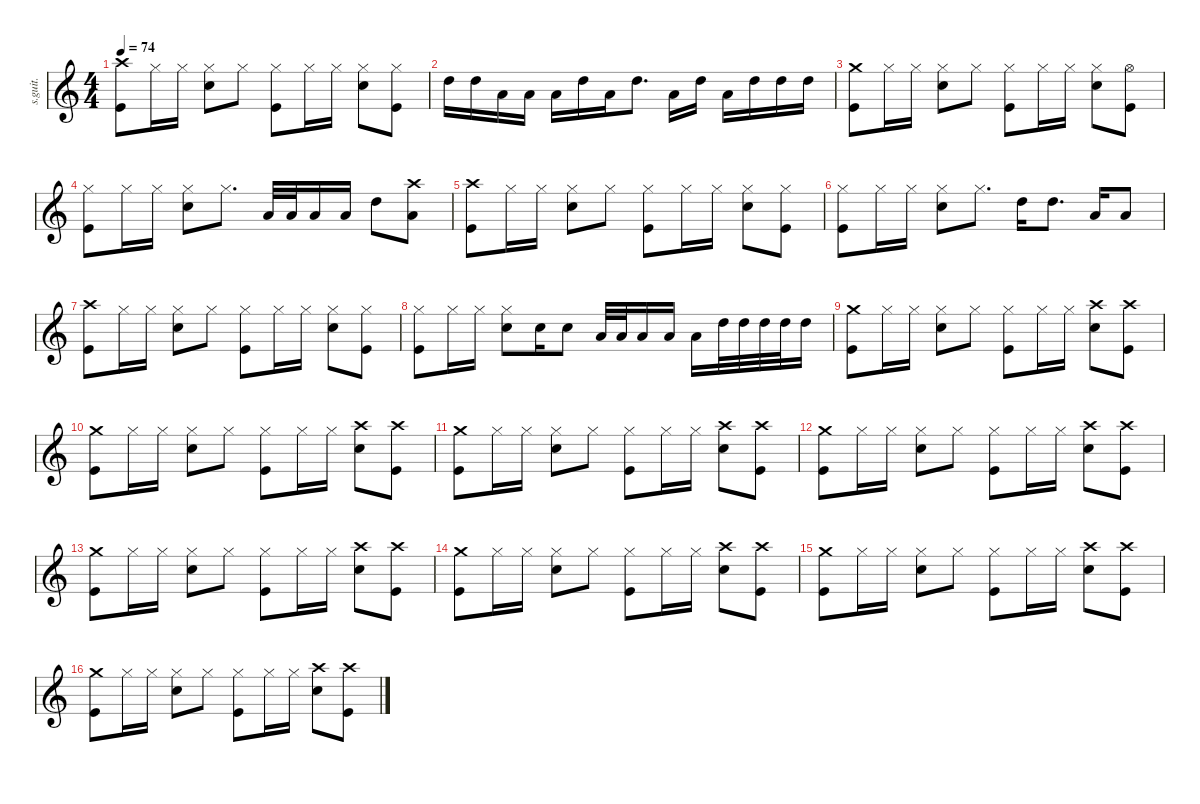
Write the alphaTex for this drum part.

\defaultSystemsLayout 4
\hideDynamics
\bracketExtendMode nobrackets
\track ("Don Henley - Drums" "s.guit.") {instrument percussion}
\staff {score}
\articulation defaults
\ts (4 4)
\tempo 74
\clef g2
\ks c
("Crash high (hit)" "Kick (hit)").8{lyrics (0 "") lyrics (1 "") lyrics (2 "") lyrics (3 "") lyrics (4 "") dy f} "Hi-Hat (closed)".16{lyrics (0 "") lyrics (1 "") lyrics (2 "") lyrics (3 "") lyrics (4 "")} "Hi-Hat (closed)".16{lyrics (0 "") lyrics (1 "") lyrics (2 "") lyrics (3 "") lyrics (4 "")} ("Hi-Hat (closed)" "Snare (hit) 2").8{lyrics (0 "") lyrics (1 "") lyrics (2 "") lyrics (3 "") lyrics (4 "")} "Hi-Hat (closed)".8{lyrics (0 "") lyrics (1 "") lyrics (2 "") lyrics (3 "") lyrics (4 "")} ("Hi-Hat (closed)" "Kick (hit)").8{lyrics (0 "") lyrics (1 "") lyrics (2 "") lyrics (3 "") lyrics (4 "")} "Hi-Hat (closed)".16{lyrics (0 "") lyrics (1 "") lyrics (2 "") lyrics (3 "") lyrics (4 "")} "Hi-Hat (closed)".16{lyrics (0 "") lyrics (1 "") lyrics (2 "") lyrics (3 "") lyrics (4 "")} ("Hi-Hat (closed)" "Snare (hit) 2").8{lyrics (0 "") lyrics (1 "") lyrics (2 "") lyrics (3 "") lyrics (4 "")} ("Hi-Hat (closed)" "Kick (hit)").8{lyrics (0 "") lyrics (1 "") lyrics (2 "") lyrics (3 "") lyrics (4 "")} |
"High Tom (hit)".16{lyrics (0 "") lyrics (1 "") lyrics (2 "") lyrics (3 "") lyrics (4 "")} "High Tom (hit)".16{lyrics (0 "") lyrics (1 "") lyrics (2 "") lyrics (3 "") lyrics (4 "")} "Low Tom (hit)".16{lyrics (0 "") lyrics (1 "") lyrics (2 "") lyrics (3 "") lyrics (4 "")} "Low Floor Tom (hit)".16{lyrics (0 "") lyrics (1 "") lyrics (2 "") lyrics (3 "") lyrics (4 "")} "Low Floor Tom (hit)".16{lyrics (0 "") lyrics (1 "") lyrics (2 "") lyrics (3 "") lyrics (4 "")} "High Tom (hit)".16{lyrics (0 "") lyrics (1 "") lyrics (2 "") lyrics (3 "") lyrics (4 "")} "Low Floor Tom (hit)".16{lyrics (0 "") lyrics (1 "") lyrics (2 "") lyrics (3 "") lyrics (4 "")} "High Tom (hit)".8{d lyrics (0 "") lyrics (1 "") lyrics (2 "") lyrics (3 "") lyrics (4 "")} "Low Floor Tom (hit)".16{lyrics (0 "") lyrics (1 "") lyrics (2 "") lyrics (3 "") lyrics (4 "")} "High Tom (hit)".16{lyrics (0 "") lyrics (1 "") lyrics (2 "") lyrics (3 "") lyrics (4 "")} "Low Floor Tom (hit)".16{lyrics (0 "") lyrics (1 "") lyrics (2 "") lyrics (3 "") lyrics (4 "")} "High Tom (hit)".16{lyrics (0 "") lyrics (1 "") lyrics (2 "") lyrics (3 "") lyrics (4 "")} "High Tom (hit)".16{lyrics (0 "") lyrics (1 "") lyrics (2 "") lyrics (3 "") lyrics (4 "")} "High Tom (hit)".16{lyrics (0 "") lyrics (1 "") lyrics (2 "") lyrics (3 "") lyrics (4 "")} |
("Crash medium (hit)" "Kick (hit)").8{lyrics (0 "") lyrics (1 "") lyrics (2 "") lyrics (3 "") lyrics (4 "")} "Hi-Hat (closed)".16{lyrics (0 "") lyrics (1 "") lyrics (2 "") lyrics (3 "") lyrics (4 "")} "Hi-Hat (closed)".16{lyrics (0 "") lyrics (1 "") lyrics (2 "") lyrics (3 "") lyrics (4 "")} ("Hi-Hat (closed)" "Snare (hit) 2").8{lyrics (0 "") lyrics (1 "") lyrics (2 "") lyrics (3 "") lyrics (4 "")} "Hi-Hat (closed)".8{lyrics (0 "") lyrics (1 "") lyrics (2 "") lyrics (3 "") lyrics (4 "")} ("Hi-Hat (closed)" "Kick (hit)").8{lyrics (0 "") lyrics (1 "") lyrics (2 "") lyrics (3 "") lyrics (4 "")} "Hi-Hat (closed)".16{lyrics (0 "") lyrics (1 "") lyrics (2 "") lyrics (3 "") lyrics (4 "")} "Hi-Hat (closed)".16{lyrics (0 "") lyrics (1 "") lyrics (2 "") lyrics (3 "") lyrics (4 "")} ("Hi-Hat (closed)" "Snare (hit) 2").8{lyrics (0 "") lyrics (1 "") lyrics (2 "") lyrics (3 "") lyrics (4 "")} ("Hi-Hat (open)" "Kick (hit)").8{lyrics (0 "") lyrics (1 "") lyrics (2 "") lyrics (3 "") lyrics (4 "")} |
("Hi-Hat (closed)" "Kick (hit)").8{lyrics (0 "") lyrics (1 "") lyrics (2 "") lyrics (3 "") lyrics (4 "")} "Hi-Hat (closed)".16{lyrics (0 "") lyrics (1 "") lyrics (2 "") lyrics (3 "") lyrics (4 "")} "Hi-Hat (closed)".16{lyrics (0 "") lyrics (1 "") lyrics (2 "") lyrics (3 "") lyrics (4 "")} ("Hi-Hat (closed)" "Snare (hit) 2").8{lyrics (0 "") lyrics (1 "") lyrics (2 "") lyrics (3 "") lyrics (4 "")} "Hi-Hat (closed)".8{d lyrics (0 "") lyrics (1 "") lyrics (2 "") lyrics (3 "") lyrics (4 "")} "Low Floor Tom (hit)".32{lyrics (0 "") lyrics (1 "") lyrics (2 "") lyrics (3 "") lyrics (4 "")} "Low Floor Tom (hit)".32{lyrics (0 "") lyrics (1 "") lyrics (2 "") lyrics (3 "") lyrics (4 "")} "Low Floor Tom (hit)".16{lyrics (0 "") lyrics (1 "") lyrics (2 "") lyrics (3 "") lyrics (4 "")} "Low Floor Tom (hit)".16{lyrics (0 "") lyrics (1 "") lyrics (2 "") lyrics (3 "") lyrics (4 "")} "High Tom (hit)".8{lyrics (0 "") lyrics (1 "") lyrics (2 "") lyrics (3 "") lyrics (4 "")} ("Crash high (hit)" "Low Floor Tom (hit)").8{lyrics (0 "") lyrics (1 "") lyrics (2 "") lyrics (3 "") lyrics (4 "")} |
("Crash high (hit)" "Kick (hit)").8{lyrics (0 "") lyrics (1 "") lyrics (2 "") lyrics (3 "") lyrics (4 "")} "Hi-Hat (closed)".16{lyrics (0 "") lyrics (1 "") lyrics (2 "") lyrics (3 "") lyrics (4 "")} "Hi-Hat (closed)".16{lyrics (0 "") lyrics (1 "") lyrics (2 "") lyrics (3 "") lyrics (4 "")} ("Hi-Hat (closed)" "Snare (hit) 2").8{lyrics (0 "") lyrics (1 "") lyrics (2 "") lyrics (3 "") lyrics (4 "")} "Hi-Hat (closed)".8{lyrics (0 "") lyrics (1 "") lyrics (2 "") lyrics (3 "") lyrics (4 "")} ("Hi-Hat (closed)" "Kick (hit)").8{lyrics (0 "") lyrics (1 "") lyrics (2 "") lyrics (3 "") lyrics (4 "")} "Hi-Hat (closed)".16{lyrics (0 "") lyrics (1 "") lyrics (2 "") lyrics (3 "") lyrics (4 "")} "Hi-Hat (closed)".16{lyrics (0 "") lyrics (1 "") lyrics (2 "") lyrics (3 "") lyrics (4 "")} ("Hi-Hat (closed)" "Snare (hit) 2").8{lyrics (0 "") lyrics (1 "") lyrics (2 "") lyrics (3 "") lyrics (4 "")} ("Hi-Hat (closed)" "Kick (hit)").8{lyrics (0 "") lyrics (1 "") lyrics (2 "") lyrics (3 "") lyrics (4 "")} |
("Hi-Hat (closed)" "Kick (hit)").8{lyrics (0 "") lyrics (1 "") lyrics (2 "") lyrics (3 "") lyrics (4 "")} "Hi-Hat (closed)".16{lyrics (0 "") lyrics (1 "") lyrics (2 "") lyrics (3 "") lyrics (4 "")} "Hi-Hat (closed)".16{lyrics (0 "") lyrics (1 "") lyrics (2 "") lyrics (3 "") lyrics (4 "")} ("Hi-Hat (closed)" "Snare (hit) 2").8{lyrics (0 "") lyrics (1 "") lyrics (2 "") lyrics (3 "") lyrics (4 "")} "Hi-Hat (closed)".8{d lyrics (0 "") lyrics (1 "") lyrics (2 "") lyrics (3 "") lyrics (4 "")} "High Tom (hit)".16{lyrics (0 "") lyrics (1 "") lyrics (2 "") lyrics (3 "") lyrics (4 "")} "High Tom (hit)".8{d lyrics (0 "") lyrics (1 "") lyrics (2 "") lyrics (3 "") lyrics (4 "")} "Low Floor Tom (hit)".16{lyrics (0 "") lyrics (1 "") lyrics (2 "") lyrics (3 "") lyrics (4 "")} "Low Floor Tom (hit)".8{lyrics (0 "") lyrics (1 "") lyrics (2 "") lyrics (3 "") lyrics (4 "")} |
("Crash high (hit)" "Kick (hit)").8{lyrics (0 "") lyrics (1 "") lyrics (2 "") lyrics (3 "") lyrics (4 "")} "Hi-Hat (closed)".16{lyrics (0 "") lyrics (1 "") lyrics (2 "") lyrics (3 "") lyrics (4 "")} "Hi-Hat (closed)".16{lyrics (0 "") lyrics (1 "") lyrics (2 "") lyrics (3 "") lyrics (4 "")} ("Hi-Hat (closed)" "Snare (hit) 2").8{lyrics (0 "") lyrics (1 "") lyrics (2 "") lyrics (3 "") lyrics (4 "")} "Hi-Hat (closed)".8{lyrics (0 "") lyrics (1 "") lyrics (2 "") lyrics (3 "") lyrics (4 "")} ("Hi-Hat (closed)" "Kick (hit)").8{lyrics (0 "") lyrics (1 "") lyrics (2 "") lyrics (3 "") lyrics (4 "")} "Hi-Hat (closed)".16{lyrics (0 "") lyrics (1 "") lyrics (2 "") lyrics (3 "") lyrics (4 "")} "Hi-Hat (closed)".16{lyrics (0 "") lyrics (1 "") lyrics (2 "") lyrics (3 "") lyrics (4 "")} ("Hi-Hat (closed)" "Snare (hit) 2").8{lyrics (0 "") lyrics (1 "") lyrics (2 "") lyrics (3 "") lyrics (4 "")} ("Hi-Hat (closed)" "Kick (hit)").8{lyrics (0 "") lyrics (1 "") lyrics (2 "") lyrics (3 "") lyrics (4 "")} |
("Hi-Hat (closed)" "Kick (hit)").8{lyrics (0 "") lyrics (1 "") lyrics (2 "") lyrics (3 "") lyrics (4 "")} "Hi-Hat (closed)".16{lyrics (0 "") lyrics (1 "") lyrics (2 "") lyrics (3 "") lyrics (4 "")} "Hi-Hat (closed)".16{lyrics (0 "") lyrics (1 "") lyrics (2 "") lyrics (3 "") lyrics (4 "")} ("Hi-Hat (closed)" "Snare (hit) 2").8{lyrics (0 "") lyrics (1 "") lyrics (2 "") lyrics (3 "") lyrics (4 "")} "Snare (hit) 2".16{lyrics (0 "") lyrics (1 "") lyrics (2 "") lyrics (3 "") lyrics (4 "")} "Snare (hit) 2".8{lyrics (0 "") lyrics (1 "") lyrics (2 "") lyrics (3 "") lyrics (4 "")} "Low Floor Tom (hit)".32{lyrics (0 "") lyrics (1 "") lyrics (2 "") lyrics (3 "") lyrics (4 "")} "Low Floor Tom (hit)".32{lyrics (0 "") lyrics (1 "") lyrics (2 "") lyrics (3 "") lyrics (4 "")} "Low Floor Tom (hit)".16{lyrics (0 "") lyrics (1 "") lyrics (2 "") lyrics (3 "") lyrics (4 "")} "Low Floor Tom (hit)".16{lyrics (0 "") lyrics (1 "") lyrics (2 "") lyrics (3 "") lyrics (4 "")} "Low Floor Tom (hit)".16{lyrics (0 "") lyrics (1 "") lyrics (2 "") lyrics (3 "") lyrics (4 "")} "High Tom (hit)".32{lyrics (0 "") lyrics (1 "") lyrics (2 "") lyrics (3 "") lyrics (4 "")} "High Tom (hit)".32{lyrics (0 "") lyrics (1 "") lyrics (2 "") lyrics (3 "") lyrics (4 "")} "High Tom (hit)".32{lyrics (0 "") lyrics (1 "") lyrics (2 "") lyrics (3 "") lyrics (4 "")} "High Tom (hit)".32{lyrics (0 "") lyrics (1 "") lyrics (2 "") lyrics (3 "") lyrics (4 "")} "High Tom (hit)".16{lyrics (0 "") lyrics (1 "") lyrics (2 "") lyrics (3 "") lyrics (4 "")} |
("Crash medium (hit)" "Kick (hit)").8{lyrics (0 "") lyrics (1 "") lyrics (2 "") lyrics (3 "") lyrics (4 "")} "Hi-Hat (closed)".16{lyrics (0 "") lyrics (1 "") lyrics (2 "") lyrics (3 "") lyrics (4 "")} "Hi-Hat (closed)".16{lyrics (0 "") lyrics (1 "") lyrics (2 "") lyrics (3 "") lyrics (4 "")} ("Hi-Hat (closed)" "Snare (hit) 2").8{lyrics (0 "") lyrics (1 "") lyrics (2 "") lyrics (3 "") lyrics (4 "")} "Hi-Hat (closed)".8{lyrics (0 "") lyrics (1 "") lyrics (2 "") lyrics (3 "") lyrics (4 "")} ("Hi-Hat (closed)" "Kick (hit)").8{lyrics (0 "") lyrics (1 "") lyrics (2 "") lyrics (3 "") lyrics (4 "")} "Hi-Hat (closed)".16{lyrics (0 "") lyrics (1 "") lyrics (2 "") lyrics (3 "") lyrics (4 "")} "Hi-Hat (closed)".16{lyrics (0 "") lyrics (1 "") lyrics (2 "") lyrics (3 "") lyrics (4 "")} ("Crash high (hit)" "Snare (hit) 2").8{lyrics (0 "") lyrics (1 "") lyrics (2 "") lyrics (3 "") lyrics (4 "")} ("Crash high (hit)" "Kick (hit)").8{lyrics (0 "") lyrics (1 "") lyrics (2 "") lyrics (3 "") lyrics (4 "")} |
("Crash medium (hit)" "Kick (hit)").8{lyrics (0 "") lyrics (1 "") lyrics (2 "") lyrics (3 "") lyrics (4 "")} "Hi-Hat (closed)".16{lyrics (0 "") lyrics (1 "") lyrics (2 "") lyrics (3 "") lyrics (4 "")} "Hi-Hat (closed)".16{lyrics (0 "") lyrics (1 "") lyrics (2 "") lyrics (3 "") lyrics (4 "")} ("Hi-Hat (closed)" "Snare (hit) 2").8{lyrics (0 "") lyrics (1 "") lyrics (2 "") lyrics (3 "") lyrics (4 "")} "Hi-Hat (closed)".8{lyrics (0 "") lyrics (1 "") lyrics (2 "") lyrics (3 "") lyrics (4 "")} ("Hi-Hat (closed)" "Kick (hit)").8{lyrics (0 "") lyrics (1 "") lyrics (2 "") lyrics (3 "") lyrics (4 "")} "Hi-Hat (closed)".16{lyrics (0 "") lyrics (1 "") lyrics (2 "") lyrics (3 "") lyrics (4 "")} "Hi-Hat (closed)".16{lyrics (0 "") lyrics (1 "") lyrics (2 "") lyrics (3 "") lyrics (4 "")} ("Crash high (hit)" "Snare (hit) 2").8{lyrics (0 "") lyrics (1 "") lyrics (2 "") lyrics (3 "") lyrics (4 "")} ("Crash high (hit)" "Kick (hit)").8{lyrics (0 "") lyrics (1 "") lyrics (2 "") lyrics (3 "") lyrics (4 "")} |
("Crash medium (hit)" "Kick (hit)").8{lyrics (0 "") lyrics (1 "") lyrics (2 "") lyrics (3 "") lyrics (4 "")} "Hi-Hat (closed)".16{lyrics (0 "") lyrics (1 "") lyrics (2 "") lyrics (3 "") lyrics (4 "")} "Hi-Hat (closed)".16{lyrics (0 "") lyrics (1 "") lyrics (2 "") lyrics (3 "") lyrics (4 "")} ("Hi-Hat (closed)" "Snare (hit) 2").8{lyrics (0 "") lyrics (1 "") lyrics (2 "") lyrics (3 "") lyrics (4 "")} "Hi-Hat (closed)".8{lyrics (0 "") lyrics (1 "") lyrics (2 "") lyrics (3 "") lyrics (4 "")} ("Hi-Hat (closed)" "Kick (hit)").8{lyrics (0 "") lyrics (1 "") lyrics (2 "") lyrics (3 "") lyrics (4 "")} "Hi-Hat (closed)".16{lyrics (0 "") lyrics (1 "") lyrics (2 "") lyrics (3 "") lyrics (4 "")} "Hi-Hat (closed)".16{lyrics (0 "") lyrics (1 "") lyrics (2 "") lyrics (3 "") lyrics (4 "")} ("Crash high (hit)" "Snare (hit) 2").8{lyrics (0 "") lyrics (1 "") lyrics (2 "") lyrics (3 "") lyrics (4 "")} ("Crash high (hit)" "Kick (hit)").8{lyrics (0 "") lyrics (1 "") lyrics (2 "") lyrics (3 "") lyrics (4 "")} |
("Crash medium (hit)" "Kick (hit)").8{lyrics (0 "") lyrics (1 "") lyrics (2 "") lyrics (3 "") lyrics (4 "")} "Hi-Hat (closed)".16{lyrics (0 "") lyrics (1 "") lyrics (2 "") lyrics (3 "") lyrics (4 "")} "Hi-Hat (closed)".16{lyrics (0 "") lyrics (1 "") lyrics (2 "") lyrics (3 "") lyrics (4 "")} ("Hi-Hat (closed)" "Snare (hit) 2").8{lyrics (0 "") lyrics (1 "") lyrics (2 "") lyrics (3 "") lyrics (4 "")} "Hi-Hat (closed)".8{lyrics (0 "") lyrics (1 "") lyrics (2 "") lyrics (3 "") lyrics (4 "")} ("Hi-Hat (closed)" "Kick (hit)").8{lyrics (0 "") lyrics (1 "") lyrics (2 "") lyrics (3 "") lyrics (4 "")} "Hi-Hat (closed)".16{lyrics (0 "") lyrics (1 "") lyrics (2 "") lyrics (3 "") lyrics (4 "")} "Hi-Hat (closed)".16{lyrics (0 "") lyrics (1 "") lyrics (2 "") lyrics (3 "") lyrics (4 "")} ("Crash high (hit)" "Snare (hit) 2").8{lyrics (0 "") lyrics (1 "") lyrics (2 "") lyrics (3 "") lyrics (4 "")} ("Crash high (hit)" "Kick (hit)").8{lyrics (0 "") lyrics (1 "") lyrics (2 "") lyrics (3 "") lyrics (4 "")} |
("Crash medium (hit)" "Kick (hit)").8{lyrics (0 "") lyrics (1 "") lyrics (2 "") lyrics (3 "") lyrics (4 "")} "Hi-Hat (closed)".16{lyrics (0 "") lyrics (1 "") lyrics (2 "") lyrics (3 "") lyrics (4 "")} "Hi-Hat (closed)".16{lyrics (0 "") lyrics (1 "") lyrics (2 "") lyrics (3 "") lyrics (4 "")} ("Hi-Hat (closed)" "Snare (hit) 2").8{lyrics (0 "") lyrics (1 "") lyrics (2 "") lyrics (3 "") lyrics (4 "")} "Hi-Hat (closed)".8{lyrics (0 "") lyrics (1 "") lyrics (2 "") lyrics (3 "") lyrics (4 "")} ("Hi-Hat (closed)" "Kick (hit)").8{lyrics (0 "") lyrics (1 "") lyrics (2 "") lyrics (3 "") lyrics (4 "")} "Hi-Hat (closed)".16{lyrics (0 "") lyrics (1 "") lyrics (2 "") lyrics (3 "") lyrics (4 "")} "Hi-Hat (closed)".16{lyrics (0 "") lyrics (1 "") lyrics (2 "") lyrics (3 "") lyrics (4 "")} ("Crash high (hit)" "Snare (hit) 2").8{lyrics (0 "") lyrics (1 "") lyrics (2 "") lyrics (3 "") lyrics (4 "")} ("Crash high (hit)" "Kick (hit)").8{lyrics (0 "") lyrics (1 "") lyrics (2 "") lyrics (3 "") lyrics (4 "")} |
("Crash medium (hit)" "Kick (hit)").8{lyrics (0 "") lyrics (1 "") lyrics (2 "") lyrics (3 "") lyrics (4 "")} "Hi-Hat (closed)".16{lyrics (0 "") lyrics (1 "") lyrics (2 "") lyrics (3 "") lyrics (4 "")} "Hi-Hat (closed)".16{lyrics (0 "") lyrics (1 "") lyrics (2 "") lyrics (3 "") lyrics (4 "")} ("Hi-Hat (closed)" "Snare (hit) 2").8{lyrics (0 "") lyrics (1 "") lyrics (2 "") lyrics (3 "") lyrics (4 "")} "Hi-Hat (closed)".8{lyrics (0 "") lyrics (1 "") lyrics (2 "") lyrics (3 "") lyrics (4 "")} ("Hi-Hat (closed)" "Kick (hit)").8{lyrics (0 "") lyrics (1 "") lyrics (2 "") lyrics (3 "") lyrics (4 "")} "Hi-Hat (closed)".16{lyrics (0 "") lyrics (1 "") lyrics (2 "") lyrics (3 "") lyrics (4 "")} "Hi-Hat (closed)".16{lyrics (0 "") lyrics (1 "") lyrics (2 "") lyrics (3 "") lyrics (4 "")} ("Crash high (hit)" "Snare (hit) 2").8{lyrics (0 "") lyrics (1 "") lyrics (2 "") lyrics (3 "") lyrics (4 "")} ("Crash high (hit)" "Kick (hit)").8{lyrics (0 "") lyrics (1 "") lyrics (2 "") lyrics (3 "") lyrics (4 "")} |
("Crash medium (hit)" "Kick (hit)").8{lyrics (0 "") lyrics (1 "") lyrics (2 "") lyrics (3 "") lyrics (4 "")} "Hi-Hat (closed)".16{lyrics (0 "") lyrics (1 "") lyrics (2 "") lyrics (3 "") lyrics (4 "")} "Hi-Hat (closed)".16{lyrics (0 "") lyrics (1 "") lyrics (2 "") lyrics (3 "") lyrics (4 "")} ("Hi-Hat (closed)" "Snare (hit) 2").8{lyrics (0 "") lyrics (1 "") lyrics (2 "") lyrics (3 "") lyrics (4 "")} "Hi-Hat (closed)".8{lyrics (0 "") lyrics (1 "") lyrics (2 "") lyrics (3 "") lyrics (4 "")} ("Hi-Hat (closed)" "Kick (hit)").8{lyrics (0 "") lyrics (1 "") lyrics (2 "") lyrics (3 "") lyrics (4 "")} "Hi-Hat (closed)".16{lyrics (0 "") lyrics (1 "") lyrics (2 "") lyrics (3 "") lyrics (4 "")} "Hi-Hat (closed)".16{lyrics (0 "") lyrics (1 "") lyrics (2 "") lyrics (3 "") lyrics (4 "")} ("Crash high (hit)" "Snare (hit) 2").8{lyrics (0 "") lyrics (1 "") lyrics (2 "") lyrics (3 "") lyrics (4 "")} ("Crash high (hit)" "Kick (hit)").8{lyrics (0 "") lyrics (1 "") lyrics (2 "") lyrics (3 "") lyrics (4 "")} |
("Crash medium (hit)" "Kick (hit)").8{lyrics (0 "") lyrics (1 "") lyrics (2 "") lyrics (3 "") lyrics (4 "")} "Hi-Hat (closed)".16{lyrics (0 "") lyrics (1 "") lyrics (2 "") lyrics (3 "") lyrics (4 "")} "Hi-Hat (closed)".16{lyrics (0 "") lyrics (1 "") lyrics (2 "") lyrics (3 "") lyrics (4 "")} ("Hi-Hat (closed)" "Snare (hit) 2").8{lyrics (0 "") lyrics (1 "") lyrics (2 "") lyrics (3 "") lyrics (4 "")} "Hi-Hat (closed)".8{lyrics (0 "") lyrics (1 "") lyrics (2 "") lyrics (3 "") lyrics (4 "")} ("Hi-Hat (closed)" "Kick (hit)").8{lyrics (0 "") lyrics (1 "") lyrics (2 "") lyrics (3 "") lyrics (4 "")} "Hi-Hat (closed)".16{lyrics (0 "") lyrics (1 "") lyrics (2 "") lyrics (3 "") lyrics (4 "")} "Hi-Hat (closed)".16{lyrics (0 "") lyrics (1 "") lyrics (2 "") lyrics (3 "") lyrics (4 "")} ("Crash high (hit)" "Snare (hit) 2").8{lyrics (0 "") lyrics (1 "") lyrics (2 "") lyrics (3 "") lyrics (4 "")} ("Crash high (hit)" "Kick (hit)").8{lyrics (0 "") lyrics (1 "") lyrics (2 "") lyrics (3 "") lyrics (4 "")}
